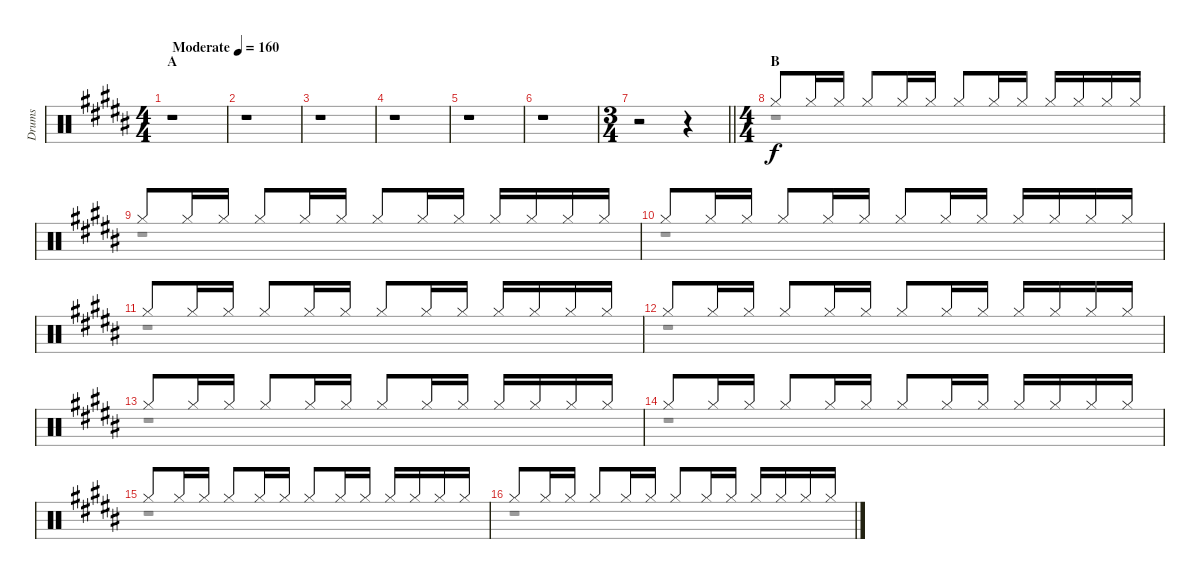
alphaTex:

\track ("Drums" "Drums") {instrument percussion}
\staff {score}
\articulation defaults
\voice
\ts (4 4)
\section ("" "A")
\tempo (160 "Moderate")
\clef neutral
\ks b
r.1{dy f} |
r.1 |
r.1 |
r.1 |
r.1 |
r.1 |
\ts (3 4)
\barLineRight lightlight
r.2 r.4 |
\ts (4 4)
\section ("" "B")
"Hi-Hat (closed)".8 "Hi-Hat (closed)".16 "Hi-Hat (closed)".16 "Hi-Hat (closed)".8 "Hi-Hat (closed)".16 "Hi-Hat (closed)".16 "Hi-Hat (closed)".8 "Hi-Hat (closed)".16 "Hi-Hat (closed)".16 "Hi-Hat (closed)".16 "Hi-Hat (closed)".16 "Hi-Hat (closed)".16 "Hi-Hat (closed)".16 |
"Hi-Hat (closed)".8 "Hi-Hat (closed)".16 "Hi-Hat (closed)".16 "Hi-Hat (closed)".8 "Hi-Hat (closed)".16 "Hi-Hat (closed)".16 "Hi-Hat (closed)".8 "Hi-Hat (closed)".16 "Hi-Hat (closed)".16 "Hi-Hat (closed)".16 "Hi-Hat (closed)".16 "Hi-Hat (closed)".16 "Hi-Hat (closed)".16 |
"Hi-Hat (closed)".8 "Hi-Hat (closed)".16 "Hi-Hat (closed)".16 "Hi-Hat (closed)".8 "Hi-Hat (closed)".16 "Hi-Hat (closed)".16 "Hi-Hat (closed)".8 "Hi-Hat (closed)".16 "Hi-Hat (closed)".16 "Hi-Hat (closed)".16 "Hi-Hat (closed)".16 "Hi-Hat (closed)".16 "Hi-Hat (closed)".16 |
"Hi-Hat (closed)".8 "Hi-Hat (closed)".16 "Hi-Hat (closed)".16 "Hi-Hat (closed)".8 "Hi-Hat (closed)".16 "Hi-Hat (closed)".16 "Hi-Hat (closed)".8 "Hi-Hat (closed)".16 "Hi-Hat (closed)".16 "Hi-Hat (closed)".16 "Hi-Hat (closed)".16 "Hi-Hat (closed)".16 "Hi-Hat (closed)".16 |
"Hi-Hat (closed)".8 "Hi-Hat (closed)".16 "Hi-Hat (closed)".16 "Hi-Hat (closed)".8 "Hi-Hat (closed)".16 "Hi-Hat (closed)".16 "Hi-Hat (closed)".8 "Hi-Hat (closed)".16 "Hi-Hat (closed)".16 "Hi-Hat (closed)".16 "Hi-Hat (closed)".16 "Hi-Hat (closed)".16 "Hi-Hat (closed)".16 |
"Hi-Hat (closed)".8 "Hi-Hat (closed)".16 "Hi-Hat (closed)".16 "Hi-Hat (closed)".8 "Hi-Hat (closed)".16 "Hi-Hat (closed)".16 "Hi-Hat (closed)".8 "Hi-Hat (closed)".16 "Hi-Hat (closed)".16 "Hi-Hat (closed)".16 "Hi-Hat (closed)".16 "Hi-Hat (closed)".16 "Hi-Hat (closed)".16 |
"Hi-Hat (closed)".8 "Hi-Hat (closed)".16 "Hi-Hat (closed)".16 "Hi-Hat (closed)".8 "Hi-Hat (closed)".16 "Hi-Hat (closed)".16 "Hi-Hat (closed)".8 "Hi-Hat (closed)".16 "Hi-Hat (closed)".16 "Hi-Hat (closed)".16 "Hi-Hat (closed)".16 "Hi-Hat (closed)".16 "Hi-Hat (closed)".16 |
"Hi-Hat (closed)".8 "Hi-Hat (closed)".16 "Hi-Hat (closed)".16 "Hi-Hat (closed)".8 "Hi-Hat (closed)".16 "Hi-Hat (closed)".16 "Hi-Hat (closed)".8 "Hi-Hat (closed)".16 "Hi-Hat (closed)".16 "Hi-Hat (closed)".16 "Hi-Hat (closed)".16 "Hi-Hat (closed)".16 "Hi-Hat (closed)".16 |
"Hi-Hat (closed)".8 "Hi-Hat (closed)".16 "Hi-Hat (closed)".16 "Hi-Hat (closed)".8 "Hi-Hat (closed)".16 "Hi-Hat (closed)".16 "Hi-Hat (closed)".8 "Hi-Hat (closed)".16 "Hi-Hat (closed)".16 "Hi-Hat (closed)".16 "Hi-Hat (closed)".16 "Hi-Hat (closed)".16 "Hi-Hat (closed)".16
\voice
\clef neutral
\ottava regular
\simile none
\ks b
r.1{dy fff} |
r.1 |
r.1 |
r.1 |
r.1 |
r.1 |
\barLineRight lightlight
r.2 r.4 |
r.1 |
r.1 |
r.1 |
r.1 |
r.1 |
r.1 |
r.1 |
r.1 |
r.1
